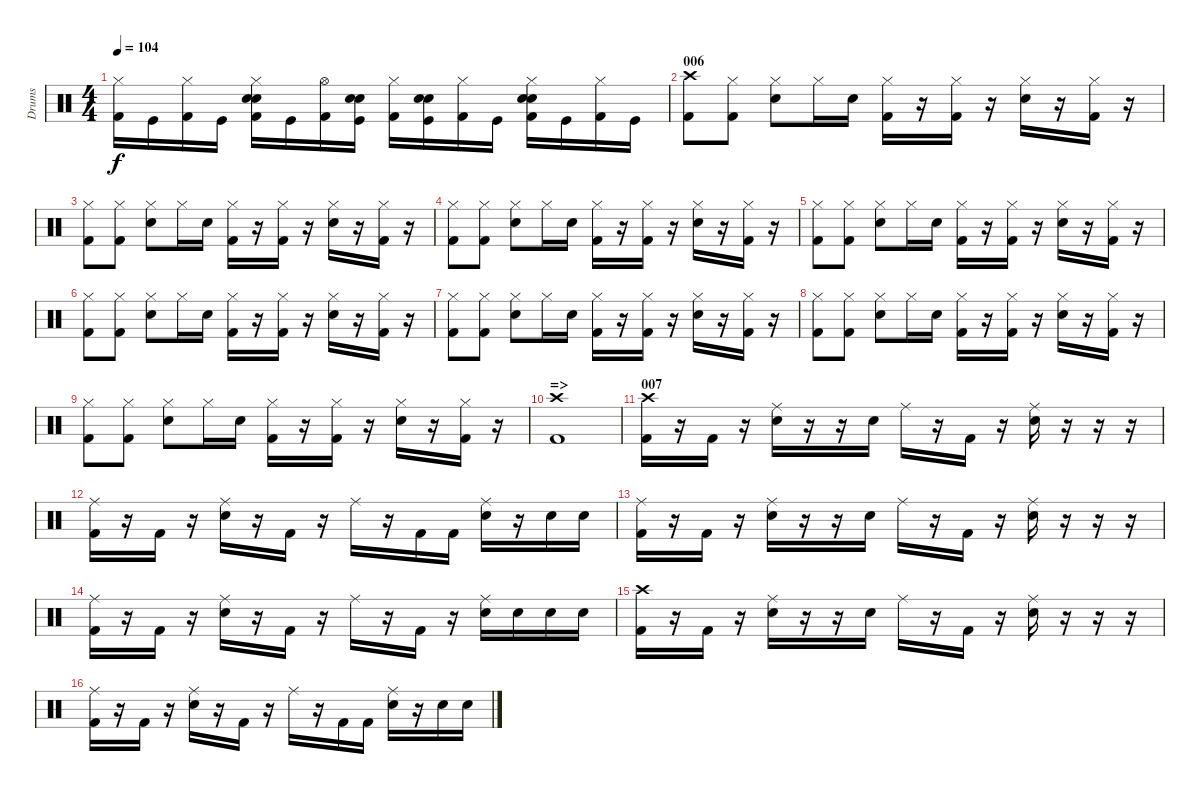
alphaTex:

\track ("Drums" "Drums") {instrument percussion}
\staff {score}
\articulation defaults
\ts (4 4)
\tempo 104
\clef neutral
\ks c
("Hi-Hat (closed)" "Kick (hit) 2").16{dy f} "Kick (hit)".16 ("Hi-Hat (closed)" "Kick (hit) 2").16 "Kick (hit)".16 ("Electric Snare (hit)" "Snare (hit) 2" "Hi-Hat (closed)" "Kick (hit) 2").16 "Kick (hit)".16 ("Hi-Hat (open)" "Kick (hit) 2").16 ("Electric Snare (hit)" "Snare (hit) 2" "Kick (hit)").16 ("Hi-Hat (closed)" "Kick (hit) 2").16 ("Electric Snare (hit)" "Snare (hit) 2" "Kick (hit)").16 ("Hi-Hat (closed)" "Kick (hit) 2").16 "Kick (hit)".16 ("Electric Snare (hit)" "Snare (hit) 2" "Hi-Hat (closed)" "Kick (hit) 2").16 "Kick (hit)".16 ("Hi-Hat (closed)" "Kick (hit) 2").16 "Kick (hit)".16 |
\section ("" "006")
("Crash high (hit)" "Kick (hit) 2").8 ("Hi-Hat (closed)" "Kick (hit) 2").8 ("Hi-Hat (closed)" "Electric Snare (hit)").8 "Hi-Hat (closed)".16 "Electric Snare (hit)".16 ("Hi-Hat (closed)" "Kick (hit) 2").16 r.16 ("Hi-Hat (closed)" "Kick (hit) 2").16 r.16 ("Hi-Hat (closed)" "Electric Snare (hit)").16 r.16 ("Hi-Hat (closed)" "Kick (hit) 2").16 r.16 |
("Hi-Hat (closed)" "Kick (hit) 2").8 ("Hi-Hat (closed)" "Kick (hit) 2").8 ("Hi-Hat (closed)" "Electric Snare (hit)").8 "Hi-Hat (closed)".16 "Electric Snare (hit)".16 ("Hi-Hat (closed)" "Kick (hit) 2").16 r.16 ("Hi-Hat (closed)" "Kick (hit) 2").16 r.16 ("Hi-Hat (closed)" "Electric Snare (hit)").16 r.16 ("Hi-Hat (closed)" "Kick (hit) 2").16 r.16 |
("Hi-Hat (closed)" "Kick (hit) 2").8 ("Hi-Hat (closed)" "Kick (hit) 2").8 ("Hi-Hat (closed)" "Electric Snare (hit)").8 "Hi-Hat (closed)".16 "Electric Snare (hit)".16 ("Hi-Hat (closed)" "Kick (hit) 2").16 r.16 ("Hi-Hat (closed)" "Kick (hit) 2").16 r.16 ("Hi-Hat (closed)" "Electric Snare (hit)").16 r.16 ("Hi-Hat (closed)" "Kick (hit) 2").16 r.16 |
("Hi-Hat (closed)" "Kick (hit) 2").8 ("Hi-Hat (closed)" "Kick (hit) 2").8 ("Hi-Hat (closed)" "Electric Snare (hit)").8 "Hi-Hat (closed)".16 "Electric Snare (hit)".16 ("Hi-Hat (closed)" "Kick (hit) 2").16 r.16 ("Hi-Hat (closed)" "Kick (hit) 2").16 r.16 ("Hi-Hat (closed)" "Electric Snare (hit)").16 r.16 ("Hi-Hat (closed)" "Kick (hit) 2").16 r.16 |
("Hi-Hat (closed)" "Kick (hit) 2").8 ("Hi-Hat (closed)" "Kick (hit) 2").8 ("Hi-Hat (closed)" "Electric Snare (hit)").8 "Hi-Hat (closed)".16 "Electric Snare (hit)".16 ("Hi-Hat (closed)" "Kick (hit) 2").16 r.16 ("Hi-Hat (closed)" "Kick (hit) 2").16 r.16 ("Hi-Hat (closed)" "Electric Snare (hit)").16 r.16 ("Hi-Hat (closed)" "Kick (hit) 2").16 r.16 |
("Hi-Hat (closed)" "Kick (hit) 2").8 ("Hi-Hat (closed)" "Kick (hit) 2").8 ("Hi-Hat (closed)" "Electric Snare (hit)").8 "Hi-Hat (closed)".16 "Electric Snare (hit)".16 ("Hi-Hat (closed)" "Kick (hit) 2").16 r.16 ("Hi-Hat (closed)" "Kick (hit) 2").16 r.16 ("Hi-Hat (closed)" "Electric Snare (hit)").16 r.16 ("Hi-Hat (closed)" "Kick (hit) 2").16 r.16 |
("Hi-Hat (closed)" "Kick (hit) 2").8 ("Hi-Hat (closed)" "Kick (hit) 2").8 ("Hi-Hat (closed)" "Electric Snare (hit)").8 "Hi-Hat (closed)".16 "Electric Snare (hit)".16 ("Hi-Hat (closed)" "Kick (hit) 2").16 r.16 ("Hi-Hat (closed)" "Kick (hit) 2").16 r.16 ("Hi-Hat (closed)" "Electric Snare (hit)").16 r.16 ("Hi-Hat (closed)" "Kick (hit) 2").16 r.16 |
("Hi-Hat (closed)" "Kick (hit) 2").8 ("Hi-Hat (closed)" "Kick (hit) 2").8 ("Hi-Hat (closed)" "Electric Snare (hit)").8 "Hi-Hat (closed)".16 "Electric Snare (hit)".16 ("Hi-Hat (closed)" "Kick (hit) 2").16 r.16 ("Hi-Hat (closed)" "Kick (hit) 2").16 r.16 ("Hi-Hat (closed)" "Electric Snare (hit)").16 r.16 ("Hi-Hat (closed)" "Kick (hit) 2").16 r.16 |
\section ("" "=>")
("Kick (hit) 2" "Crash high (hit)").1 |
\section ("" "007")
("Kick (hit) 2" "Crash high (hit)").16 r.16 "Kick (hit) 2".16 r.16 ("Electric Snare (hit)" "Ride (middle)").16 r.16 r.16 "Electric Snare (hit)".16 "Ride (middle)".16 r.16 "Kick (hit) 2".16 r.16 ("Electric Snare (hit)" "Ride (middle)").16 r.16 r.16 r.16 |
("Kick (hit) 2" "Ride (middle)").16 r.16 "Kick (hit) 2".16 r.16 ("Electric Snare (hit)" "Ride (middle)").16 r.16 "Kick (hit) 2".16 r.16 "Ride (middle)".16 r.16 "Kick (hit) 2".16 "Kick (hit) 2".16 ("Electric Snare (hit)" "Ride (middle)").16 r.16 "Electric Snare (hit)".16 "Electric Snare (hit)".16 |
("Kick (hit) 2" "Ride (middle)").16 r.16 "Kick (hit) 2".16 r.16 ("Electric Snare (hit)" "Ride (middle)").16 r.16 r.16 "Electric Snare (hit)".16 "Ride (middle)".16 r.16 "Kick (hit) 2".16 r.16 ("Electric Snare (hit)" "Ride (middle)").16 r.16 r.16 r.16 |
("Kick (hit) 2" "Ride (middle)").16 r.16 "Kick (hit) 2".16 r.16 ("Electric Snare (hit)" "Ride (middle)").16 r.16 "Kick (hit) 2".16 r.16 "Ride (middle)".16 r.16 "Kick (hit) 2".16 r.16 ("Electric Snare (hit)" "Ride (middle)").16 "Electric Snare (hit)".16 "Electric Snare (hit)".16 "Electric Snare (hit)".16 |
("Kick (hit) 2" "Crash high (hit)").16 r.16 "Kick (hit) 2".16 r.16 ("Electric Snare (hit)" "Ride (middle)").16 r.16 r.16 "Electric Snare (hit)".16 "Ride (middle)".16 r.16 "Kick (hit) 2".16 r.16 ("Electric Snare (hit)" "Ride (middle)").16 r.16 r.16 r.16 |
("Kick (hit) 2" "Ride (middle)").16 r.16 "Kick (hit) 2".16 r.16 ("Electric Snare (hit)" "Ride (middle)").16 r.16 "Kick (hit) 2".16 r.16 "Ride (middle)".16 r.16 "Kick (hit) 2".16 "Kick (hit) 2".16 ("Electric Snare (hit)" "Ride (middle)").16 r.16 "Electric Snare (hit)".16 "Electric Snare (hit)".16
